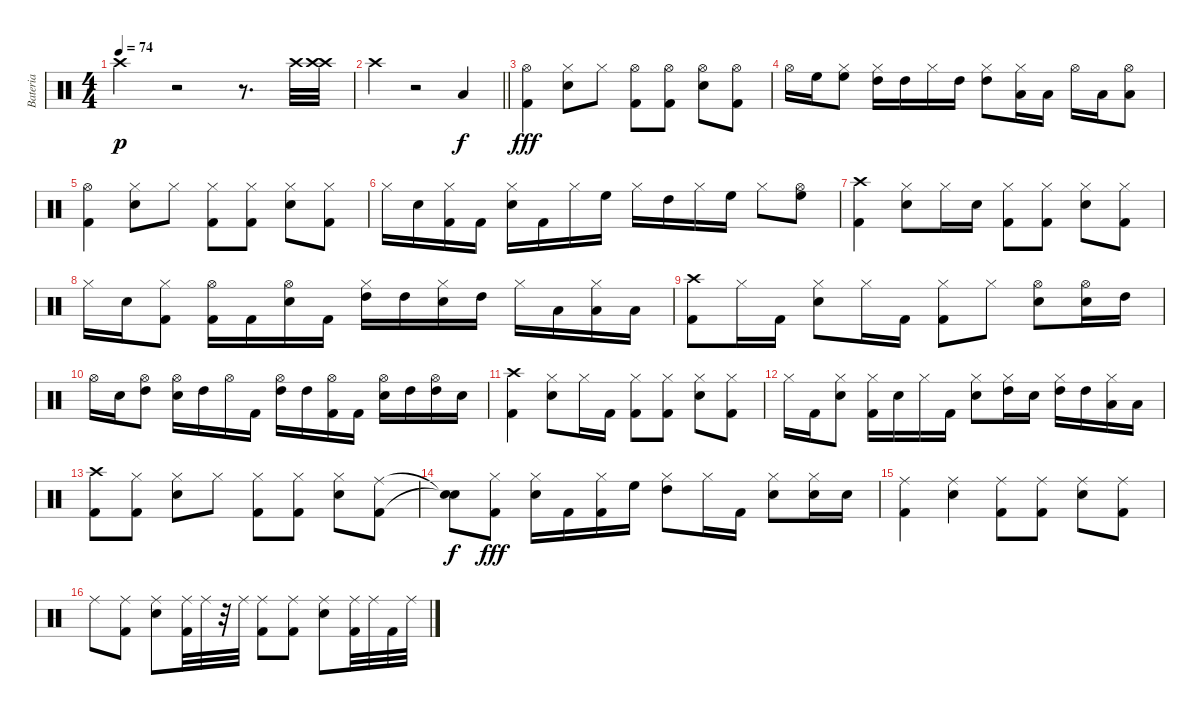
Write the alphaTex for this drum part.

\track ("Bateria" "Bateria") {instrument percussion}
\staff {score}
\articulation defaults
\ts (4 4)
\tempo 74
\clef neutral
\ks c "Crash high (hit)".4{dy p}
r.2 r.8{d} "Crash high (hit)".32 ("Crash high (hit)" "Crash high (hit)").32 |
\barLineRight lightlight "Crash high (hit)".4
r.2 "Low Floor Tom (hit)".4{dy f} |
("Kick (hit) 2" "Hi-Hat (open)").4{dy fff} ("Snare (hit) 2" "Hi-Hat (closed)").8 "Hi-Hat (closed)".8 ("Kick (hit) 2" "Hi-Hat (open)").8 ("Kick (hit) 2" "Hi-Hat (open)").8 ("Snare (hit) 2" "Hi-Hat (open)").8 ("Kick (hit) 2" "Hi-Hat (open)").8 |
"Hi-Hat (open)".16 "High Floor Tom (hit)".16 ("Hi-Hat (closed)" "High Floor Tom (hit)").8 ("Hi-Hat (closed)" "High Tom (hit)").16 "High Tom (hit)".16 "Hi-Hat (closed)".16 "High Tom (hit)".16 ("Hi-Hat (closed)" "High Tom (hit)").8 ("Hi-Hat (closed)" "Low Tom (hit)").16 "Low Tom (hit)".16 "Hi-Hat (open)".16 "Low Tom (hit)".16 ("Hi-Hat (open)" "Low Tom (hit)").8 |
("Kick (hit) 2" "Hi-Hat (open)").4 ("Snare (hit) 2" "Hi-Hat (closed)").8 "Hi-Hat (closed)".8 ("Kick (hit) 2" "Hi-Hat (closed)").8 ("Kick (hit) 2" "Hi-Hat (closed)").8 ("Snare (hit) 2" "Hi-Hat (closed)").8 ("Kick (hit) 2" "Hi-Hat (closed)").8 |
"Hi-Hat (closed)".16 "Snare (hit) 2".16 ("Kick (hit) 2" "Hi-Hat (closed)").16 "Kick (hit) 2".16 ("Snare (hit) 2" "Hi-Hat (closed)").16 "Kick (hit) 2".16 "Hi-Hat (closed)".16 "High Floor Tom (hit)".16 "Hi-Hat (closed)".16 "High Tom (hit)".16 "Hi-Hat (closed)".16 "High Floor Tom (hit)".16 "Hi-Hat (closed)".8 ("Hi-Hat (open)" "High Floor Tom (hit)").8 |
("Kick (hit) 2" "Crash high (hit)").4 ("Snare (hit) 2" "Hi-Hat (closed)").8 "Hi-Hat (closed)".16 "Snare (hit) 2".16 ("Kick (hit) 2" "Hi-Hat (closed)").8 ("Kick (hit) 2" "Hi-Hat (closed)").8 ("Snare (hit) 2" "Hi-Hat (closed)").8 ("Kick (hit) 2" "Hi-Hat (closed)").8 |
"Hi-Hat (closed)".16 "Snare (hit) 2".16 ("Kick (hit) 2" "Hi-Hat (closed)").8 ("Kick (hit) 2" "Hi-Hat (open)").16 "Kick (hit) 2".16 ("Snare (hit) 2" "Hi-Hat (open)").16 "Kick (hit) 2".16 ("Hi-Hat (closed)" "High Tom (hit)").16 "High Tom (hit)".16 ("Snare (hit) 2" "Hi-Hat (closed)").16 "High Tom (hit)".16 "Hi-Hat (closed)".16 "Low Tom (hit)".16 ("Hi-Hat (closed)" "Low Tom (hit)").16 "Low Tom (hit)".16 |
("Kick (hit) 2" "Crash high (hit)").8 "Hi-Hat (closed)".16 "Kick (hit) 2".16 ("Snare (hit) 2" "Hi-Hat (closed)").8 "Hi-Hat (closed)".16 "Kick (hit) 2".16 ("Kick (hit) 2" "Hi-Hat (closed)").8 "Hi-Hat (closed)".8 ("Snare (hit) 2" "Hi-Hat (open)").8 ("Snare (hit) 2" "Hi-Hat (open)").16 "High Tom (hit)".16 |
"Hi-Hat (open)".16 "Snare (hit) 2".16 ("Hi-Hat (open)" "High Tom (hit)").8 ("Snare (hit) 2" "Hi-Hat (open)").16 "High Tom (hit)".16 "Hi-Hat (open)".16 "Kick (hit) 2".16 ("Hi-Hat (open)" "High Tom (hit)").16 "High Tom (hit)".16 ("Kick (hit) 2" "Hi-Hat (open)").16 "Kick (hit) 2".16 ("Snare (hit) 2" "Hi-Hat (open)").16 "High Tom (hit)".16 ("Hi-Hat (open)" "High Tom (hit)").16 "Snare (hit) 2".16 |
("Kick (hit) 2" "Crash high (hit)").4 ("Snare (hit) 2" "Hi-Hat (closed)").8 "Hi-Hat (closed)".16 "Kick (hit) 2".16 ("Kick (hit) 2" "Hi-Hat (closed)").8 ("Kick (hit) 2" "Hi-Hat (closed)").8 ("Snare (hit) 2" "Hi-Hat (closed)").8 ("Kick (hit) 2" "Hi-Hat (closed)").8 |
"Hi-Hat (closed)".16 "Kick (hit) 2".16 ("Snare (hit) 2" "Hi-Hat (closed)").8 ("Kick (hit) 2" "Hi-Hat (closed)").16 "Snare (hit) 2".16 "Hi-Hat (closed)".16 "Kick (hit) 2".16 ("Snare (hit) 2" "Hi-Hat (closed)").8 ("Hi-Hat (closed)" "High Tom (hit)").16 "Snare (hit) 2".16 ("Hi-Hat (closed)" "High Tom (hit)").16 "High Tom (hit)".16 ("Hi-Hat (closed)" "Low Tom (hit)").16 "Low Tom (hit)".16 |
("Kick (hit) 2" "Crash high (hit)").8 ("Kick (hit) 2" "Hi-Hat (closed)").8 ("Snare (hit) 2" "Hi-Hat (closed)").8 "Hi-Hat (closed)".8 ("Kick (hit) 2" "Hi-Hat (closed)").8 ("Kick (hit) 2" "Hi-Hat (closed)").8 ("Snare (hit) 2" "Hi-Hat (closed)").8 ("Kick (hit) 2" "Ride (middle)").8 |
("Snare (hit)"{t} "Snare (hit)"{t}).8{dy f} ("Kick (hit) 2" "Hi-Hat (closed)").8{dy fff} ("Snare (hit) 2" "Hi-Hat (closed)").16 "Kick (hit) 2".16 ("Kick (hit) 2" "Hi-Hat (closed)").16 "High Floor Tom (hit)".16 ("Hi-Hat (closed)" "High Tom (hit)").8 "Hi-Hat (closed)".16 "Kick (hit) 2".16 ("Snare (hit) 2" "Hi-Hat (closed)").8 ("Snare (hit) 2" "Hi-Hat (closed)").16 "Snare (hit) 2".16 |
("Kick (hit) 2" "Ride (middle)").4 ("Snare (hit) 2" "Ride (middle)").4 ("Kick (hit) 2" "Ride (middle)").8 ("Kick (hit) 2" "Ride (middle)").8 ("Snare (hit) 2" "Ride (middle)").8 ("Kick (hit) 2" "Ride (middle)").8 |
"Ride (middle)".8 ("Kick (hit) 2" "Ride (middle)").8 ("Snare (hit) 2" "Ride (middle)").8 ("Kick (hit) 2" "Ride (middle)").32 "Ride (middle)".32 r.32 "Ride (middle)".32 ("Kick (hit) 2" "Ride (middle)").8 ("Kick (hit) 2" "Ride (middle)").8 ("Snare (hit) 2" "Ride (middle)").8 ("Kick (hit) 2" "Ride (middle)").32 "Ride (middle)".32 "Kick (hit) 2".32 "Ride (middle)".32
